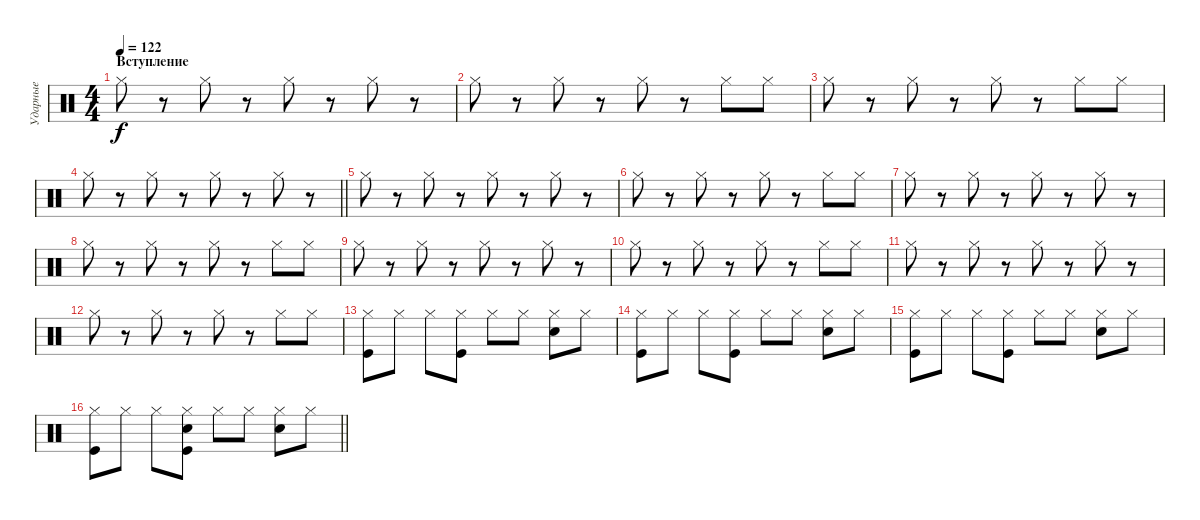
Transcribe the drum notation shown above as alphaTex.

\track ("Ударные" "Ударные") {instrument percussion}
\staff {score}
\articulation defaults
\ts (4 4)
\section ("" "Вступление")
\tempo 122
\clef neutral
\ks c "Hi-Hat (closed)".8{dy f}
r.8 "Hi-Hat (closed)".8 r.8 "Hi-Hat (closed)".8 r.8 "Hi-Hat (closed)".8 r.8 |
"Hi-Hat (closed)".8 r.8 "Hi-Hat (closed)".8 r.8 "Hi-Hat (closed)".8 r.8 "Hi-Hat (closed)".8 "Hi-Hat (closed)".8 |
"Hi-Hat (closed)".8 r.8 "Hi-Hat (closed)".8 r.8 "Hi-Hat (closed)".8 r.8 "Hi-Hat (closed)".8 "Hi-Hat (closed)".8 |
\barLineRight lightlight "Hi-Hat (closed)".8
r.8 "Hi-Hat (closed)".8 r.8 "Hi-Hat (closed)".8 r.8 "Hi-Hat (closed)".8 r.8 |
\section ("" "")
"Hi-Hat (closed)".8 r.8 "Hi-Hat (closed)".8 r.8 "Hi-Hat (closed)".8 r.8 "Hi-Hat (closed)".8 r.8 |
"Hi-Hat (closed)".8 r.8 "Hi-Hat (closed)".8 r.8 "Hi-Hat (closed)".8 r.8 "Hi-Hat (closed)".8 "Hi-Hat (closed)".8 |
"Hi-Hat (closed)".8 r.8 "Hi-Hat (closed)".8 r.8 "Hi-Hat (closed)".8 r.8 "Hi-Hat (closed)".8 r.8 |
"Hi-Hat (closed)".8 r.8 "Hi-Hat (closed)".8 r.8 "Hi-Hat (closed)".8 r.8 "Hi-Hat (closed)".8 "Hi-Hat (closed)".8 |
"Hi-Hat (closed)".8 r.8 "Hi-Hat (closed)".8 r.8 "Hi-Hat (closed)".8 r.8 "Hi-Hat (closed)".8 r.8 |
"Hi-Hat (closed)".8 r.8 "Hi-Hat (closed)".8 r.8 "Hi-Hat (closed)".8 r.8 "Hi-Hat (closed)".8 "Hi-Hat (closed)".8 |
"Hi-Hat (closed)".8 r.8 "Hi-Hat (closed)".8 r.8 "Hi-Hat (closed)".8 r.8 "Hi-Hat (closed)".8 r.8 |
"Hi-Hat (closed)".8 r.8 "Hi-Hat (closed)".8 r.8 "Hi-Hat (closed)".8 r.8 "Hi-Hat (closed)".8 "Hi-Hat (closed)".8 |
("Hi-Hat (closed)" "Kick (hit)").8 "Hi-Hat (closed)".8 "Hi-Hat (closed)".8 ("Kick (hit)" "Hi-Hat (closed)").8 "Hi-Hat (closed)".8 "Hi-Hat (closed)".8 ("Electric Snare (hit)" "Hi-Hat (closed)").8 "Hi-Hat (closed)".8 |
("Hi-Hat (closed)" "Kick (hit)").8 "Hi-Hat (closed)".8 "Hi-Hat (closed)".8 ("Kick (hit)" "Hi-Hat (closed)").8 "Hi-Hat (closed)".8 "Hi-Hat (closed)".8 ("Electric Snare (hit)" "Hi-Hat (closed)").8 "Hi-Hat (closed)".8 |
("Hi-Hat (closed)" "Kick (hit)").8 "Hi-Hat (closed)".8 "Hi-Hat (closed)".8 ("Kick (hit)" "Hi-Hat (closed)").8 "Hi-Hat (closed)".8 "Hi-Hat (closed)".8 ("Electric Snare (hit)" "Hi-Hat (closed)").8 "Hi-Hat (closed)".8 |
\barLineRight lightlight
("Hi-Hat (closed)" "Kick (hit)").8 "Hi-Hat (closed)".8 "Hi-Hat (closed)".8 ("Kick (hit)" "Electric Snare (hit)" "Hi-Hat (closed)").8 "Hi-Hat (closed)".8 "Hi-Hat (closed)".8 ("Electric Snare (hit)" "Hi-Hat (closed)").8 "Hi-Hat (closed)".8
